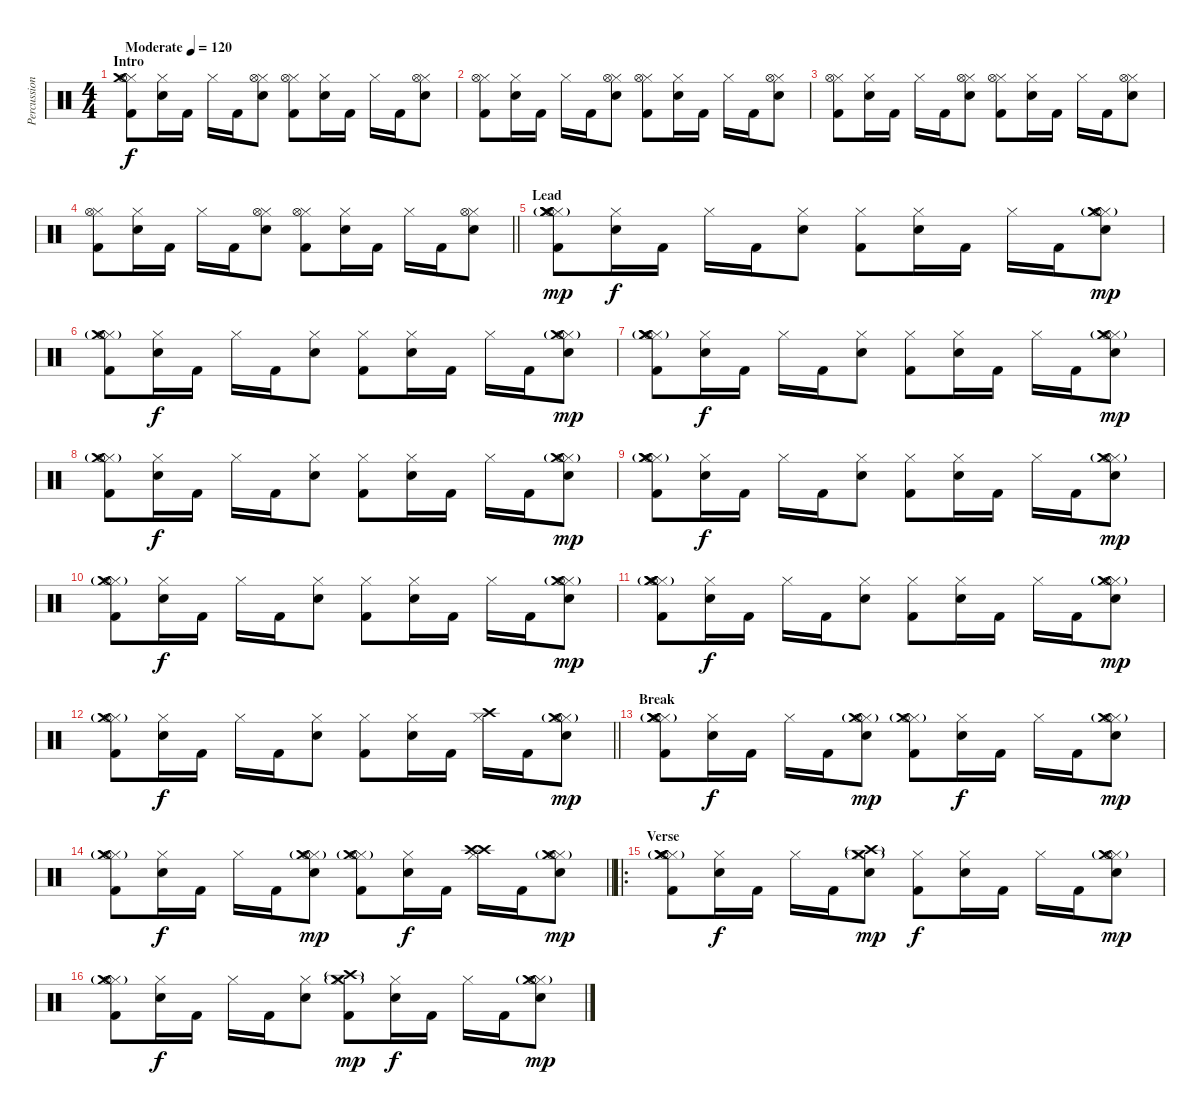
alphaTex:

\track ("Percussion" "Percussion") {instrument percussion}
\staff {score}
\articulation defaults
\ts (4 4)
\section ("" "Intro")
\tempo (120 "Moderate")
\clef neutral
\ks c
("Hi-Hat (closed)" "Hi-Hat (open)" "Kick (hit) 2" "Crash medium (hit)").8{dy f} ("Hi-Hat (closed)" "Snare (hit) 2").16 "Kick (hit) 2".16 "Hi-Hat (closed)".16 "Kick (hit) 2".16 ("Hi-Hat (closed)" "Hi-Hat (open)" "Snare (hit) 2").8 ("Hi-Hat (closed)" "Hi-Hat (open)" "Kick (hit) 2").8 ("Hi-Hat (closed)" "Snare (hit) 2").16 "Kick (hit) 2".16 "Hi-Hat (closed)".16 "Kick (hit) 2".16 ("Hi-Hat (closed)" "Hi-Hat (open)" "Snare (hit) 2").8 |
("Hi-Hat (closed)" "Hi-Hat (open)" "Kick (hit) 2").8 ("Hi-Hat (closed)" "Snare (hit) 2").16 "Kick (hit) 2".16 "Hi-Hat (closed)".16 "Kick (hit) 2".16 ("Hi-Hat (closed)" "Hi-Hat (open)" "Snare (hit) 2").8 ("Hi-Hat (closed)" "Hi-Hat (open)" "Kick (hit) 2").8 ("Hi-Hat (closed)" "Snare (hit) 2").16 "Kick (hit) 2".16 "Hi-Hat (closed)".16 "Kick (hit) 2".16 ("Hi-Hat (closed)" "Hi-Hat (open)" "Snare (hit) 2").8 |
("Hi-Hat (closed)" "Hi-Hat (open)" "Kick (hit) 2").8 ("Hi-Hat (closed)" "Snare (hit) 2").16 "Kick (hit) 2".16 "Hi-Hat (closed)".16 "Kick (hit) 2".16 ("Hi-Hat (closed)" "Hi-Hat (open)" "Snare (hit) 2").8 ("Hi-Hat (closed)" "Hi-Hat (open)" "Kick (hit) 2").8 ("Hi-Hat (closed)" "Snare (hit) 2").16 "Kick (hit) 2".16 "Hi-Hat (closed)".16 "Kick (hit) 2".16 ("Hi-Hat (closed)" "Hi-Hat (open)" "Snare (hit) 2").8 |
\barLineRight lightlight
("Hi-Hat (closed)" "Hi-Hat (open)" "Kick (hit) 2").8 ("Hi-Hat (closed)" "Snare (hit) 2").16 "Kick (hit) 2".16 "Hi-Hat (closed)".16 "Kick (hit) 2".16 ("Hi-Hat (closed)" "Hi-Hat (open)" "Snare (hit) 2").8 ("Hi-Hat (closed)" "Hi-Hat (open)" "Kick (hit) 2").8 ("Hi-Hat (closed)" "Snare (hit) 2").16 "Kick (hit) 2".16 "Hi-Hat (closed)".16 "Kick (hit) 2".16 ("Hi-Hat (closed)" "Hi-Hat (open)" "Snare (hit) 2").8 |
\section ("" "Lead")
("Hi-Hat (closed)" "Hi-Hat (open)"{g} "Crash medium (hit)"{g} "Kick (hit) 2" "Crash medium (hit)").8{dy mp} ("Hi-Hat (closed)" "Snare (hit) 2").16{dy f} "Kick (hit) 2".16 "Hi-Hat (closed)".16 "Kick (hit) 2".16 ("Hi-Hat (closed)" "Snare (hit) 2").8 ("Hi-Hat (closed)" "Kick (hit) 2").8 ("Hi-Hat (closed)" "Snare (hit) 2").16 "Kick (hit) 2".16 "Hi-Hat (closed)".16 "Kick (hit) 2".16 ("Hi-Hat (closed)" "Hi-Hat (open)"{g} "Crash medium (hit)"{g} "Snare (hit) 2").8{dy mp} |
("Hi-Hat (closed)" "Hi-Hat (open)"{g} "Crash medium (hit)"{g} "Kick (hit) 2").8 ("Hi-Hat (closed)" "Snare (hit) 2").16{dy f} "Kick (hit) 2".16 "Hi-Hat (closed)".16 "Kick (hit) 2".16 ("Hi-Hat (closed)" "Snare (hit) 2").8 ("Hi-Hat (closed)" "Kick (hit) 2").8 ("Hi-Hat (closed)" "Snare (hit) 2").16 "Kick (hit) 2".16 "Hi-Hat (closed)".16 "Kick (hit) 2".16 ("Hi-Hat (closed)" "Hi-Hat (open)"{g} "Crash medium (hit)"{g} "Snare (hit) 2").8{dy mp} |
("Hi-Hat (closed)" "Hi-Hat (open)"{g} "Crash medium (hit)"{g} "Kick (hit) 2" "Crash medium (hit)").8 ("Hi-Hat (closed)" "Snare (hit) 2").16{dy f} "Kick (hit) 2".16 "Hi-Hat (closed)".16 "Kick (hit) 2".16 ("Hi-Hat (closed)" "Snare (hit) 2").8 ("Hi-Hat (closed)" "Kick (hit) 2").8 ("Hi-Hat (closed)" "Snare (hit) 2").16 "Kick (hit) 2".16 "Hi-Hat (closed)".16 "Kick (hit) 2".16 ("Hi-Hat (closed)" "Hi-Hat (open)"{g} "Crash medium (hit)"{g} "Snare (hit) 2").8{dy mp} |
("Hi-Hat (closed)" "Hi-Hat (open)"{g} "Crash medium (hit)"{g} "Kick (hit) 2").8 ("Hi-Hat (closed)" "Snare (hit) 2").16{dy f} "Kick (hit) 2".16 "Hi-Hat (closed)".16 "Kick (hit) 2".16 ("Hi-Hat (closed)" "Snare (hit) 2").8 ("Hi-Hat (closed)" "Kick (hit) 2").8 ("Hi-Hat (closed)" "Snare (hit) 2").16 "Kick (hit) 2".16 "Hi-Hat (closed)".16 "Kick (hit) 2".16 ("Hi-Hat (closed)" "Hi-Hat (open)"{g} "Crash medium (hit)"{g} "Snare (hit) 2").8{dy mp} |
("Hi-Hat (closed)" "Hi-Hat (open)"{g} "Crash medium (hit)"{g} "Kick (hit) 2" "Crash medium (hit)").8 ("Hi-Hat (closed)" "Snare (hit) 2").16{dy f} "Kick (hit) 2".16 "Hi-Hat (closed)".16 "Kick (hit) 2".16 ("Hi-Hat (closed)" "Snare (hit) 2").8 ("Hi-Hat (closed)" "Kick (hit) 2").8 ("Hi-Hat (closed)" "Snare (hit) 2").16 "Kick (hit) 2".16 "Hi-Hat (closed)".16 "Kick (hit) 2".16 ("Hi-Hat (closed)" "Hi-Hat (open)"{g} "Crash medium (hit)"{g} "Snare (hit) 2").8{dy mp} |
("Hi-Hat (closed)" "Hi-Hat (open)"{g} "Crash medium (hit)"{g} "Kick (hit) 2").8 ("Hi-Hat (closed)" "Snare (hit) 2").16{dy f} "Kick (hit) 2".16 "Hi-Hat (closed)".16 "Kick (hit) 2".16 ("Hi-Hat (closed)" "Snare (hit) 2").8 ("Hi-Hat (closed)" "Kick (hit) 2").8 ("Hi-Hat (closed)" "Snare (hit) 2").16 "Kick (hit) 2".16 "Hi-Hat (closed)".16 "Kick (hit) 2".16 ("Hi-Hat (closed)" "Hi-Hat (open)"{g} "Crash medium (hit)"{g} "Snare (hit) 2").8{dy mp} |
("Hi-Hat (closed)" "Hi-Hat (open)"{g} "Crash medium (hit)"{g} "Kick (hit) 2" "Crash medium (hit)").8 ("Hi-Hat (closed)" "Snare (hit) 2").16{dy f} "Kick (hit) 2".16 "Hi-Hat (closed)".16 "Kick (hit) 2".16 ("Hi-Hat (closed)" "Snare (hit) 2").8 ("Hi-Hat (closed)" "Kick (hit) 2").8 ("Hi-Hat (closed)" "Snare (hit) 2").16 "Kick (hit) 2".16 "Hi-Hat (closed)".16 "Kick (hit) 2".16 ("Hi-Hat (closed)" "Hi-Hat (open)"{g} "Crash medium (hit)"{g} "Snare (hit) 2").8{dy mp} |
\barLineRight lightlight
("Hi-Hat (closed)" "Hi-Hat (open)"{g} "Crash medium (hit)"{g} "Kick (hit) 2").8 ("Hi-Hat (closed)" "Snare (hit) 2").16{dy f} "Kick (hit) 2".16 "Hi-Hat (closed)".16 "Kick (hit) 2".16 ("Hi-Hat (closed)" "Snare (hit) 2").8 ("Hi-Hat (closed)" "Kick (hit) 2").8 ("Hi-Hat (closed)" "Snare (hit) 2").16 "Kick (hit) 2".16 ("Hi-Hat (closed)" "Crash high (hit)").16 "Kick (hit) 2".16 ("Hi-Hat (closed)" "Hi-Hat (open)"{g} "Crash medium (hit)"{g} "Snare (hit) 2").8{dy mp} |
\section ("" "Break")
("Hi-Hat (closed)" "Hi-Hat (open)"{g} "Crash medium (hit)"{g} "Kick (hit) 2" "Crash medium (hit)").8 ("Hi-Hat (closed)" "Snare (hit) 2").16{dy f} "Kick (hit) 2".16 "Hi-Hat (closed)".16 "Kick (hit) 2".16 ("Hi-Hat (closed)" "Hi-Hat (open)"{g} "Crash medium (hit)"{g} "Snare (hit) 2").8{dy mp} ("Hi-Hat (closed)" "Hi-Hat (open)"{g} "Crash medium (hit)"{g} "Kick (hit) 2").8 ("Hi-Hat (closed)" "Snare (hit) 2").16{dy f} "Kick (hit) 2".16 "Hi-Hat (closed)".16 "Kick (hit) 2".16 ("Hi-Hat (closed)" "Hi-Hat (open)"{g} "Crash medium (hit)"{g} "Snare (hit) 2").8{dy mp} |
\barLineRight lightlight
("Hi-Hat (closed)" "Hi-Hat (open)"{g} "Crash medium (hit)"{g} "Kick (hit) 2").8 ("Hi-Hat (closed)" "Snare (hit) 2").16{dy f} "Kick (hit) 2".16 "Hi-Hat (closed)".16 "Kick (hit) 2".16 ("Hi-Hat (closed)" "Hi-Hat (open)"{g} "Crash medium (hit)"{g} "Snare (hit) 2").8{dy mp} ("Hi-Hat (closed)" "Hi-Hat (open)"{g} "Crash medium (hit)"{g} "Kick (hit) 2").8 ("Hi-Hat (closed)" "Snare (hit) 2").16{dy f} "Kick (hit) 2".16 ("Hi-Hat (closed)" "Crash high (hit)" "Crash high (hit)").16 "Kick (hit) 2".16 ("Hi-Hat (closed)" "Hi-Hat (open)"{g} "Crash medium (hit)"{g} "Snare (hit) 2").8{dy mp} |
\ro
\section ("" "Verse")
("Hi-Hat (closed)" "Hi-Hat (open)"{g} "Crash medium (hit)"{g} "Kick (hit) 2" "Crash medium (hit)").8 ("Hi-Hat (closed)" "Snare (hit) 2").16{dy f} "Kick (hit) 2".16 "Hi-Hat (closed)".16 "Kick (hit) 2".16 ("Hi-Hat (closed)" "Crash high (hit)"{g} "Crash medium (hit)"{g} "Snare (hit) 2").8{dy mp} ("Hi-Hat (closed)" "Kick (hit) 2").8{dy f} ("Hi-Hat (closed)" "Snare (hit) 2").16 "Kick (hit) 2".16 "Hi-Hat (closed)".16 "Kick (hit) 2".16 ("Hi-Hat (closed)" "Hi-Hat (open)"{g} "Crash medium (hit)"{g} "Snare (hit) 2").8{dy mp} |
("Hi-Hat (closed)" "Hi-Hat (open)"{g} "Crash medium (hit)"{g} "Kick (hit) 2").8 ("Hi-Hat (closed)" "Snare (hit) 2").16{dy f} "Kick (hit) 2".16 "Hi-Hat (closed)".16 "Kick (hit) 2".16 ("Hi-Hat (closed)" "Snare (hit) 2").8 ("Hi-Hat (closed)" "Crash high (hit)"{g} "Crash medium (hit)"{g} "Kick (hit) 2").8{dy mp} ("Hi-Hat (closed)" "Snare (hit) 2").16{dy f} "Kick (hit) 2".16 "Hi-Hat (closed)".16 "Kick (hit) 2".16 ("Hi-Hat (closed)" "Hi-Hat (open)"{g} "Crash medium (hit)"{g} "Snare (hit) 2").8{dy mp}
